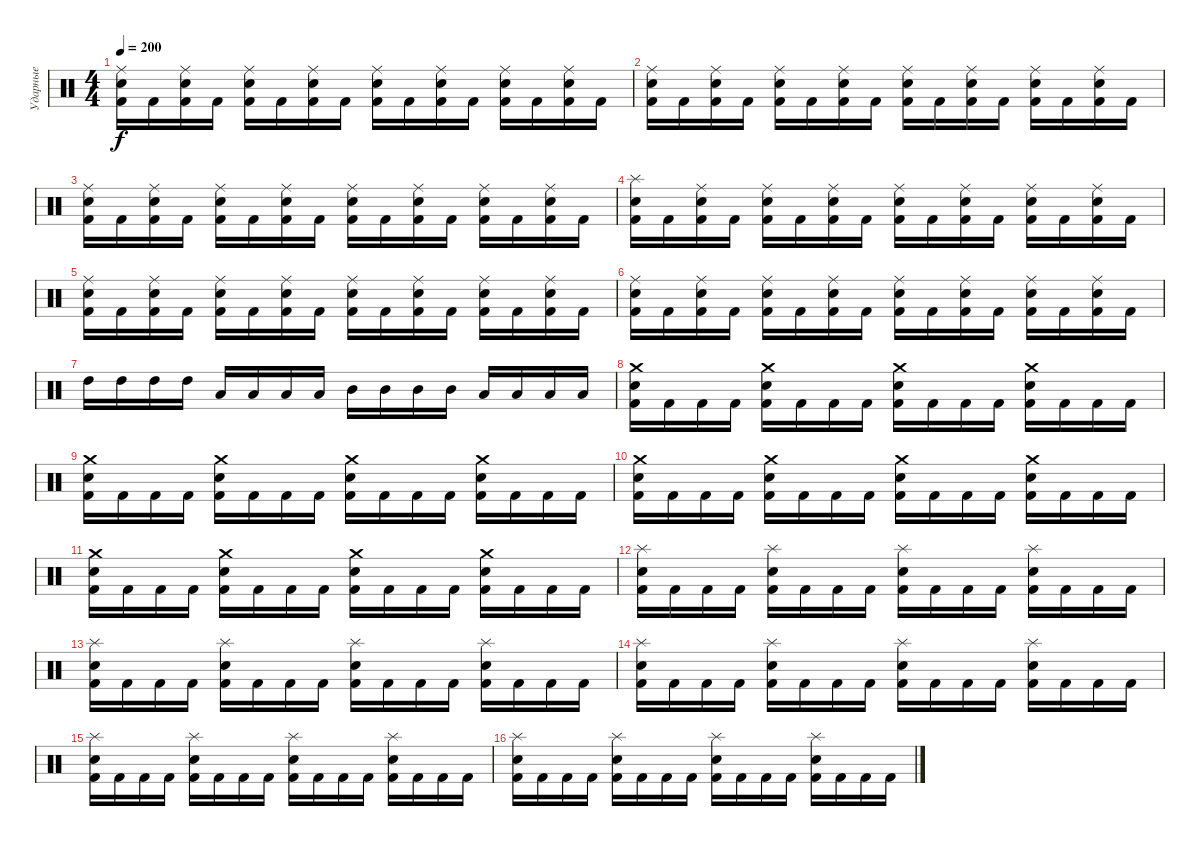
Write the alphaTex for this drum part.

\track ("Ударные" "Ударные") {instrument percussion}
\staff {score}
\articulation defaults
\ts (4 4)
\tempo 200
\clef neutral
\ks c
("Ride (middle)" "Electric Snare (hit)" "Kick (hit) 2").16{dy f} "Kick (hit) 2".16 ("Ride (middle)" "Electric Snare (hit)" "Kick (hit) 2").16 "Kick (hit) 2".16 ("Ride (middle)" "Electric Snare (hit)" "Kick (hit) 2").16 "Kick (hit) 2".16 ("Ride (middle)" "Electric Snare (hit)" "Kick (hit) 2").16 "Kick (hit) 2".16 ("Ride (middle)" "Electric Snare (hit)" "Kick (hit) 2").16 "Kick (hit) 2".16 ("Ride (middle)" "Electric Snare (hit)" "Kick (hit) 2").16 "Kick (hit) 2".16 ("Ride (middle)" "Electric Snare (hit)" "Kick (hit) 2").16 "Kick (hit) 2".16 ("Ride (middle)" "Electric Snare (hit)" "Kick (hit) 2").16 "Kick (hit) 2".16 |
("Ride (middle)" "Electric Snare (hit)" "Kick (hit) 2").16 "Kick (hit) 2".16 ("Ride (middle)" "Electric Snare (hit)" "Kick (hit) 2").16 "Kick (hit) 2".16 ("Ride (middle)" "Electric Snare (hit)" "Kick (hit) 2").16 "Kick (hit) 2".16 ("Ride (middle)" "Electric Snare (hit)" "Kick (hit) 2").16 "Kick (hit) 2".16 ("Ride (middle)" "Electric Snare (hit)" "Kick (hit) 2").16 "Kick (hit) 2".16 ("Ride (middle)" "Electric Snare (hit)" "Kick (hit) 2").16 "Kick (hit) 2".16 ("Ride (middle)" "Electric Snare (hit)" "Kick (hit) 2").16 "Kick (hit) 2".16 ("Ride (middle)" "Electric Snare (hit)" "Kick (hit) 2").16 "Kick (hit) 2".16 |
("Ride (middle)" "Electric Snare (hit)" "Kick (hit) 2").16 "Kick (hit) 2".16 ("Ride (middle)" "Electric Snare (hit)" "Kick (hit) 2").16 "Kick (hit) 2".16 ("Ride (middle)" "Electric Snare (hit)" "Kick (hit) 2").16 "Kick (hit) 2".16 ("Ride (middle)" "Electric Snare (hit)" "Kick (hit) 2").16 "Kick (hit) 2".16 ("Ride (middle)" "Electric Snare (hit)" "Kick (hit) 2").16 "Kick (hit) 2".16 ("Ride (middle)" "Electric Snare (hit)" "Kick (hit) 2").16 "Kick (hit) 2".16 ("Ride (middle)" "Electric Snare (hit)" "Kick (hit) 2").16 "Kick (hit) 2".16 ("Ride (middle)" "Electric Snare (hit)" "Kick (hit) 2").16 "Kick (hit) 2".16 |
("Splash (hit)" "Electric Snare (hit)" "Kick (hit) 2").16 "Kick (hit) 2".16 ("Ride (middle)" "Electric Snare (hit)" "Kick (hit) 2").16 "Kick (hit) 2".16 ("Ride (middle)" "Electric Snare (hit)" "Kick (hit) 2").16 "Kick (hit) 2".16 ("Ride (middle)" "Electric Snare (hit)" "Kick (hit) 2").16 "Kick (hit) 2".16 ("Ride (middle)" "Electric Snare (hit)" "Kick (hit) 2").16 "Kick (hit) 2".16 ("Ride (middle)" "Electric Snare (hit)" "Kick (hit) 2").16 "Kick (hit) 2".16 ("Ride (middle)" "Electric Snare (hit)" "Kick (hit) 2").16 "Kick (hit) 2".16 ("Ride (middle)" "Electric Snare (hit)" "Kick (hit) 2").16 "Kick (hit) 2".16 |
("Ride (middle)" "Electric Snare (hit)" "Kick (hit) 2").16 "Kick (hit) 2".16 ("Ride (middle)" "Electric Snare (hit)" "Kick (hit) 2").16 "Kick (hit) 2".16 ("Ride (middle)" "Electric Snare (hit)" "Kick (hit) 2").16 "Kick (hit) 2".16 ("Ride (middle)" "Electric Snare (hit)" "Kick (hit) 2").16 "Kick (hit) 2".16 ("Ride (middle)" "Electric Snare (hit)" "Kick (hit) 2").16 "Kick (hit) 2".16 ("Ride (middle)" "Electric Snare (hit)" "Kick (hit) 2").16 "Kick (hit) 2".16 ("Ride (middle)" "Electric Snare (hit)" "Kick (hit) 2").16 "Kick (hit) 2".16 ("Ride (middle)" "Electric Snare (hit)" "Kick (hit) 2").16 "Kick (hit) 2".16 |
("Ride (middle)" "Electric Snare (hit)" "Kick (hit) 2").16 "Kick (hit) 2".16 ("Ride (middle)" "Electric Snare (hit)" "Kick (hit) 2").16 "Kick (hit) 2".16 ("Ride (middle)" "Electric Snare (hit)" "Kick (hit) 2").16 "Kick (hit) 2".16 ("Ride (middle)" "Electric Snare (hit)" "Kick (hit) 2").16 "Kick (hit) 2".16 ("Ride (middle)" "Electric Snare (hit)" "Kick (hit) 2").16 "Kick (hit) 2".16 ("Ride (middle)" "Electric Snare (hit)" "Kick (hit) 2").16 "Kick (hit) 2".16 ("Ride (middle)" "Electric Snare (hit)" "Kick (hit) 2").16 "Kick (hit) 2".16 ("Ride (middle)" "Electric Snare (hit)" "Kick (hit) 2").16 "Kick (hit) 2".16 |
"High Tom (hit)".16 "High Tom (hit)".16 "High Tom (hit)".16 "High Tom (hit)".16 "Low Floor Tom (hit)".16 "Low Floor Tom (hit)".16 "Low Floor Tom (hit)".16 "Low Floor Tom (hit)".16 "Mid Tom (hit)".16 "Mid Tom (hit)".16 "Mid Tom (hit)".16 "Mid Tom (hit)".16 "Low Tom (hit)".16 "Low Tom (hit)".16 "Low Tom (hit)".16 "Low Tom (hit)".16 |
("Crash medium (hit)" "Electric Snare (hit)" "Kick (hit) 2").16 "Kick (hit) 2".16 "Kick (hit) 2".16 "Kick (hit) 2".16 ("Crash medium (hit)" "Electric Snare (hit)" "Kick (hit) 2").16 "Kick (hit) 2".16 "Kick (hit) 2".16 "Kick (hit) 2".16 ("Crash medium (hit)" "Electric Snare (hit)" "Kick (hit) 2").16 "Kick (hit) 2".16 "Kick (hit) 2".16 "Kick (hit) 2".16 ("Crash medium (hit)" "Electric Snare (hit)" "Kick (hit) 2").16 "Kick (hit) 2".16 "Kick (hit) 2".16 "Kick (hit) 2".16 |
("Crash medium (hit)" "Electric Snare (hit)" "Kick (hit) 2").16 "Kick (hit) 2".16 "Kick (hit) 2".16 "Kick (hit) 2".16 ("Crash medium (hit)" "Electric Snare (hit)" "Kick (hit) 2").16 "Kick (hit) 2".16 "Kick (hit) 2".16 "Kick (hit) 2".16 ("Crash medium (hit)" "Electric Snare (hit)" "Kick (hit) 2").16 "Kick (hit) 2".16 "Kick (hit) 2".16 "Kick (hit) 2".16 ("Crash medium (hit)" "Electric Snare (hit)" "Kick (hit) 2").16 "Kick (hit) 2".16 "Kick (hit) 2".16 "Kick (hit) 2".16 |
("Crash medium (hit)" "Electric Snare (hit)" "Kick (hit) 2").16 "Kick (hit) 2".16 "Kick (hit) 2".16 "Kick (hit) 2".16 ("Crash medium (hit)" "Electric Snare (hit)" "Kick (hit) 2").16 "Kick (hit) 2".16 "Kick (hit) 2".16 "Kick (hit) 2".16 ("Crash medium (hit)" "Electric Snare (hit)" "Kick (hit) 2").16 "Kick (hit) 2".16 "Kick (hit) 2".16 "Kick (hit) 2".16 ("Crash medium (hit)" "Electric Snare (hit)" "Kick (hit) 2").16 "Kick (hit) 2".16 "Kick (hit) 2".16 "Kick (hit) 2".16 |
("Crash medium (hit)" "Electric Snare (hit)" "Kick (hit) 2").16 "Kick (hit) 2".16 "Kick (hit) 2".16 "Kick (hit) 2".16 ("Crash medium (hit)" "Electric Snare (hit)" "Kick (hit) 2").16 "Kick (hit) 2".16 "Kick (hit) 2".16 "Kick (hit) 2".16 ("Crash medium (hit)" "Electric Snare (hit)" "Kick (hit) 2").16 "Kick (hit) 2".16 "Kick (hit) 2".16 "Kick (hit) 2".16 ("Crash medium (hit)" "Electric Snare (hit)" "Kick (hit) 2").16 "Kick (hit) 2".16 "Kick (hit) 2".16 "Kick (hit) 2".16 |
("Splash (hit)" "Electric Snare (hit)" "Kick (hit) 2").16 "Kick (hit) 2".16 "Kick (hit) 2".16 "Kick (hit) 2".16 ("Splash (hit)" "Electric Snare (hit)" "Kick (hit) 2").16 "Kick (hit) 2".16 "Kick (hit) 2".16 "Kick (hit) 2".16 ("Splash (hit)" "Electric Snare (hit)" "Kick (hit) 2").16 "Kick (hit) 2".16 "Kick (hit) 2".16 "Kick (hit) 2".16 ("Splash (hit)" "Electric Snare (hit)" "Kick (hit) 2").16 "Kick (hit) 2".16 "Kick (hit) 2".16 "Kick (hit) 2".16 |
("Splash (hit)" "Electric Snare (hit)" "Kick (hit) 2").16 "Kick (hit) 2".16 "Kick (hit) 2".16 "Kick (hit) 2".16 ("Splash (hit)" "Electric Snare (hit)" "Kick (hit) 2").16 "Kick (hit) 2".16 "Kick (hit) 2".16 "Kick (hit) 2".16 ("Splash (hit)" "Electric Snare (hit)" "Kick (hit) 2").16 "Kick (hit) 2".16 "Kick (hit) 2".16 "Kick (hit) 2".16 ("Splash (hit)" "Electric Snare (hit)" "Kick (hit) 2").16 "Kick (hit) 2".16 "Kick (hit) 2".16 "Kick (hit) 2".16 |
("Splash (hit)" "Electric Snare (hit)" "Kick (hit) 2").16 "Kick (hit) 2".16 "Kick (hit) 2".16 "Kick (hit) 2".16 ("Splash (hit)" "Electric Snare (hit)" "Kick (hit) 2").16 "Kick (hit) 2".16 "Kick (hit) 2".16 "Kick (hit) 2".16 ("Splash (hit)" "Electric Snare (hit)" "Kick (hit) 2").16 "Kick (hit) 2".16 "Kick (hit) 2".16 "Kick (hit) 2".16 ("Splash (hit)" "Electric Snare (hit)" "Kick (hit) 2").16 "Kick (hit) 2".16 "Kick (hit) 2".16 "Kick (hit) 2".16 |
("Splash (hit)" "Electric Snare (hit)" "Kick (hit) 2").16 "Kick (hit) 2".16 "Kick (hit) 2".16 "Kick (hit) 2".16 ("Splash (hit)" "Electric Snare (hit)" "Kick (hit) 2").16 "Kick (hit) 2".16 "Kick (hit) 2".16 "Kick (hit) 2".16 ("Splash (hit)" "Electric Snare (hit)" "Kick (hit) 2").16 "Kick (hit) 2".16 "Kick (hit) 2".16 "Kick (hit) 2".16 ("Splash (hit)" "Electric Snare (hit)" "Kick (hit) 2").16 "Kick (hit) 2".16 "Kick (hit) 2".16 "Kick (hit) 2".16 |
("Splash (hit)" "Electric Snare (hit)" "Kick (hit) 2").16 "Kick (hit) 2".16 "Kick (hit) 2".16 "Kick (hit) 2".16 ("Splash (hit)" "Electric Snare (hit)" "Kick (hit) 2").16 "Kick (hit) 2".16 "Kick (hit) 2".16 "Kick (hit) 2".16 ("Splash (hit)" "Electric Snare (hit)" "Kick (hit) 2").16 "Kick (hit) 2".16 "Kick (hit) 2".16 "Kick (hit) 2".16 ("Splash (hit)" "Electric Snare (hit)" "Kick (hit) 2").16 "Kick (hit) 2".16 "Kick (hit) 2".16 "Kick (hit) 2".16
